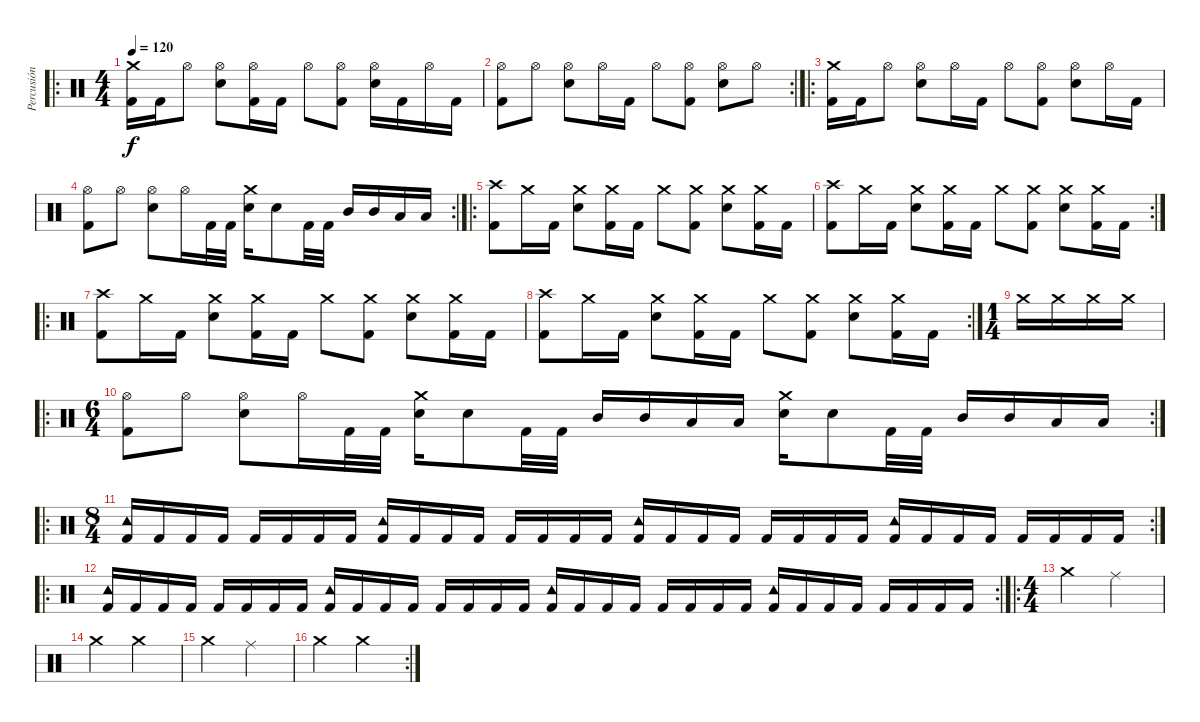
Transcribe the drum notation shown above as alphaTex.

\track ("Percusión" "Percusión") {instrument percussion}
\staff {score}
\articulation defaults
\ro
\ts (4 4)
\tempo 120
\clef neutral
\ks c
("Kick (hit) 2" "Crash medium (hit)").16{dy f} "Kick (hit) 2".16 "Hi-Hat (open)".8 ("Electric Snare (hit)" "Hi-Hat (open)").8 ("Kick (hit) 2" "Hi-Hat (open)").16 "Kick (hit) 2".16 "Hi-Hat (open)".8 ("Kick (hit) 2" "Hi-Hat (open)").8 ("Electric Snare (hit)" "Hi-Hat (open)").16 "Kick (hit) 2".16 "Hi-Hat (open)".16 "Kick (hit) 2".16 |
\rc 2
("Kick (hit) 2" "Hi-Hat (open)").8 "Hi-Hat (open)".8 ("Electric Snare (hit)" "Hi-Hat (open)").8 "Hi-Hat (open)".16 "Kick (hit) 2".16 "Hi-Hat (open)".8 ("Kick (hit) 2" "Hi-Hat (open)").8 ("Electric Snare (hit)" "Hi-Hat (open)").8 "Hi-Hat (open)".8 |
\ro
("Kick (hit) 2" "Crash medium (hit)").16 "Kick (hit) 2".16 "Hi-Hat (open)".8 ("Electric Snare (hit)" "Hi-Hat (open)").8 "Hi-Hat (open)".16 "Kick (hit) 2".16 "Hi-Hat (open)".8 ("Kick (hit) 2" "Hi-Hat (open)").8 ("Electric Snare (hit)" "Hi-Hat (open)").8 "Hi-Hat (open)".16 "Kick (hit) 2".16 |
\rc 2
("Kick (hit) 2" "Hi-Hat (open)").8 "Hi-Hat (open)".8 ("Electric Snare (hit)" "Hi-Hat (open)").8 "Hi-Hat (open)".16 "Kick (hit) 2".32 "Kick (hit) 2".32 ("Electric Snare (hit)" "Crash medium (hit)").16 "Electric Snare (hit)".8 "Kick (hit) 2".32 "Kick (hit) 2".32 "Mid Tom (hit)".16 "Mid Tom (hit)".16 "Low Tom (hit)".16 "Low Tom (hit)".16 |
\ro
("Kick (hit) 2" "Crash high (hit)").8 "Crash medium (hit)".16 "Kick (hit) 2".16 ("Electric Snare (hit)" "Crash medium (hit)").8 ("Kick (hit) 2" "Crash medium (hit)").16 "Kick (hit) 2".16 "Crash medium (hit)".8 ("Kick (hit) 2" "Crash medium (hit)").8 ("Electric Snare (hit)" "Crash medium (hit)").8 ("Kick (hit) 2" "Crash medium (hit)").16 "Kick (hit) 2".16 |
\rc 2
("Kick (hit) 2" "Crash high (hit)").8 "Crash medium (hit)".16 "Kick (hit) 2".16 ("Electric Snare (hit)" "Crash medium (hit)").8 ("Kick (hit) 2" "Crash medium (hit)").16 "Kick (hit) 2".16 "Crash medium (hit)".8 ("Kick (hit) 2" "Crash medium (hit)").8 ("Electric Snare (hit)" "Crash medium (hit)").8 ("Kick (hit) 2" "Crash medium (hit)").16 "Kick (hit) 2".16 |
\ro
("Kick (hit) 2" "Crash high (hit)").8 "Crash medium (hit)".16 "Kick (hit) 2".16 ("Electric Snare (hit)" "Crash medium (hit)").8 ("Kick (hit) 2" "Crash medium (hit)").16 "Kick (hit) 2".16 "Crash medium (hit)".8 ("Kick (hit) 2" "Crash medium (hit)").8 ("Electric Snare (hit)" "Crash medium (hit)").8 ("Kick (hit) 2" "Crash medium (hit)").16 "Kick (hit) 2".16 |
\rc 2
("Kick (hit) 2" "Crash high (hit)").8 "Crash medium (hit)".16 "Kick (hit) 2".16 ("Electric Snare (hit)" "Crash medium (hit)").8 ("Kick (hit) 2" "Crash medium (hit)").16 "Kick (hit) 2".16 "Crash medium (hit)".8 ("Kick (hit) 2" "Crash medium (hit)").8 ("Electric Snare (hit)" "Crash medium (hit)").8 ("Kick (hit) 2" "Crash medium (hit)").16 "Kick (hit) 2".16 |
\ts (1 4)
"Crash medium (hit)".16 "Crash medium (hit)".16 "Crash medium (hit)".16 "Crash medium (hit)".16 |
\ro
\rc 2
\ts (6 4)
("Kick (hit) 2" "Hi-Hat (open)").8 "Hi-Hat (open)".8 ("Electric Snare (hit)" "Hi-Hat (open)").8 "Hi-Hat (open)".16 "Kick (hit) 2".32 "Kick (hit) 2".32 ("Electric Snare (hit)" "Crash medium (hit)").16 "Electric Snare (hit)".8 "Kick (hit) 2".32 "Kick (hit) 2".32 "Mid Tom (hit)".16 "Mid Tom (hit)".16 "Low Tom (hit)".16 "Low Tom (hit)".16 ("Electric Snare (hit)" "Crash medium (hit)").16 "Electric Snare (hit)".8 "Kick (hit) 2".32 "Kick (hit) 2".32 "Mid Tom (hit)".16 "Mid Tom (hit)".16 "Low Tom (hit)".16 "Low Tom (hit)".16 |
\ro
\rc 2
\ts (8 4)
("Kick (hit) 2" "Tambourine (hit)").16 "Kick (hit) 2".16 "Kick (hit) 2".16 "Kick (hit) 2".16 "Kick (hit) 2".16 "Kick (hit) 2".16 "Kick (hit) 2".16 "Kick (hit) 2".16 ("Kick (hit) 2" "Tambourine (hit)").16 "Kick (hit) 2".16 "Kick (hit) 2".16 "Kick (hit) 2".16 "Kick (hit) 2".16 "Kick (hit) 2".16 "Kick (hit) 2".16 "Kick (hit) 2".16 ("Kick (hit) 2" "Tambourine (hit)").16 "Kick (hit) 2".16 "Kick (hit) 2".16 "Kick (hit) 2".16 "Kick (hit) 2".16 "Kick (hit) 2".16 "Kick (hit) 2".16 "Kick (hit) 2".16 ("Kick (hit) 2" "Tambourine (hit)").16 "Kick (hit) 2".16 "Kick (hit) 2".16 "Kick (hit) 2".16 "Kick (hit) 2".16 "Kick (hit) 2".16 "Kick (hit) 2".16 "Kick (hit) 2".16 |
\ro
\rc 2
("Kick (hit) 2" "Tambourine (hit)").16 "Kick (hit) 2".16 "Kick (hit) 2".16 "Kick (hit) 2".16 "Kick (hit) 2".16 "Kick (hit) 2".16 "Kick (hit) 2".16 "Kick (hit) 2".16 ("Kick (hit) 2" "Tambourine (hit)").16 "Kick (hit) 2".16 "Kick (hit) 2".16 "Kick (hit) 2".16 "Kick (hit) 2".16 "Kick (hit) 2".16 "Kick (hit) 2".16 "Kick (hit) 2".16 ("Kick (hit) 2" "Tambourine (hit)").16 "Kick (hit) 2".16 "Kick (hit) 2".16 "Kick (hit) 2".16 "Kick (hit) 2".16 "Kick (hit) 2".16 "Kick (hit) 2".16 "Kick (hit) 2".16 ("Kick (hit) 2" "Tambourine (hit)").16 "Kick (hit) 2".16 "Kick (hit) 2".16 "Kick (hit) 2".16 "Kick (hit) 2".16 "Kick (hit) 2".16 "Kick (hit) 2".16 "Kick (hit) 2".16 |
\ro
\ts (4 4)
"Crash medium (hit)".2 "Ride (middle)".2 |
"Crash medium (hit)".2 "Crash medium (hit)".2 |
"Crash medium (hit)".2 "Ride (middle)".2 |
\rc 2 "Crash medium (hit)".2 "Crash medium (hit)".2
